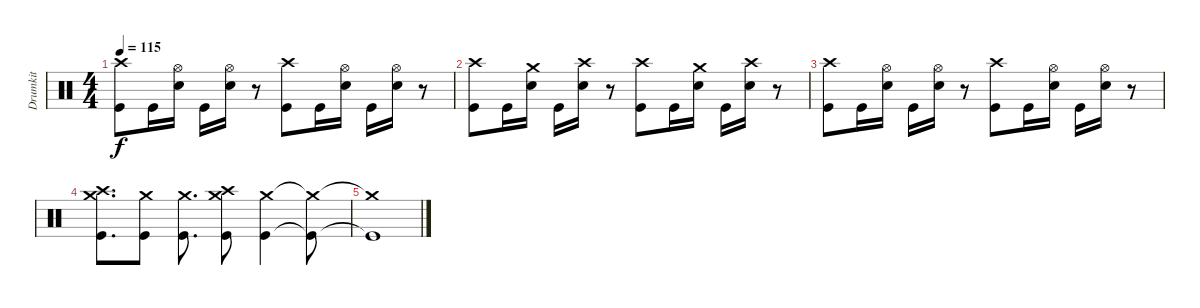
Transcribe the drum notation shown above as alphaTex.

\track ("Drumkit" "Drumkit") {instrument percussion}
\staff {score}
\articulation defaults
\ts (4 4)
\tempo 115
\clef neutral
\ks c
("Kick (hit)" "Crash high (hit)").8{dy f} "Kick (hit)".16 ("Hi-Hat (open)" "Snare (hit) 2").16 "Kick (hit)".16 ("Hi-Hat (open)" "Snare (hit) 2").16 r.8 ("Kick (hit)" "Crash high (hit)").8 "Kick (hit)".16 ("Hi-Hat (open)" "Snare (hit) 2").16 "Kick (hit)".16 ("Hi-Hat (open)" "Snare (hit) 2").16 r.8 |
("Kick (hit)" "Crash high (hit)").8 "Kick (hit)".16 ("Crash medium (hit)" "Snare (hit) 2").16 "Kick (hit)".16 ("Crash high (hit)" "Snare (hit) 2").16 r.8 ("Kick (hit)" "Crash high (hit)").8 "Kick (hit)".16 ("Crash medium (hit)" "Snare (hit) 2").16 "Kick (hit)".16 ("Crash high (hit)" "Snare (hit) 2").16 r.8 |
("Kick (hit)" "Crash high (hit)").8 "Kick (hit)".16 ("Hi-Hat (open)" "Snare (hit) 2").16 "Kick (hit)".16 ("Hi-Hat (open)" "Snare (hit) 2").16 r.8 ("Kick (hit)" "Crash high (hit)").8 "Kick (hit)".16 ("Hi-Hat (open)" "Snare (hit) 2").16 "Kick (hit)".16 ("Hi-Hat (open)" "Snare (hit) 2").16 r.8 |
("Crash high (hit)" "Crash medium (hit)" "Kick (hit)").8{d} ("Crash medium (hit)" "Kick (hit)").8 ("Crash medium (hit)" "Kick (hit)").8{d} ("Crash high (hit)" "Crash medium (hit)" "Kick (hit)").8 ("Crash medium (hit)" "Kick (hit)").4 ("Crash medium (hit)"{t} "Kick (hit)"{t}).8 |
("Crash medium (hit)"{t} "Kick (hit)"{t}).1
